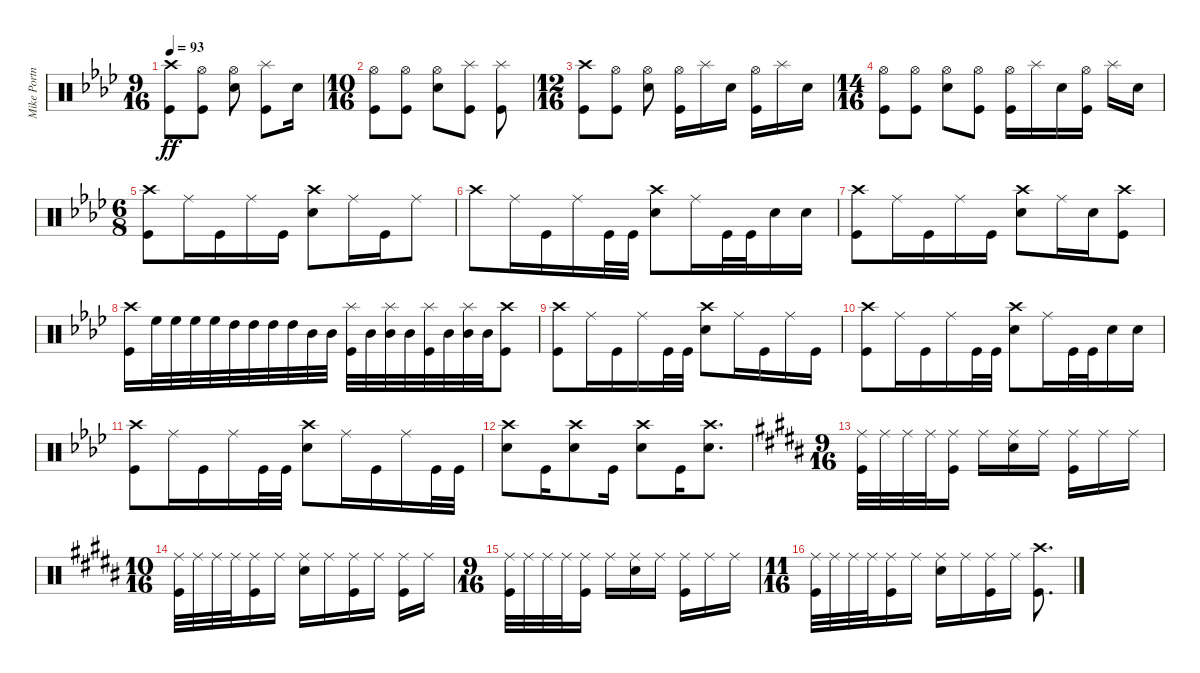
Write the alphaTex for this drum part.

\track ("Mike Portnoy - Drums" "Mike Portn") {instrument percussion}
\staff {score}
\articulation defaults
\ts (9 16)
\tempo 93
\clef neutral
\ks fminor
("Crash high (hit)" "Kick (hit)").8{dy ff} ("Hi-Hat (open)" "Kick (hit)").8 ("Hi-Hat (open)" "Snare (hit) 2").8 ("Splash (hit)" "Kick (hit)").8 "Snare (hit) 2".16 |
\ts (10 16)
("Hi-Hat (open)" "Kick (hit)").8 ("Hi-Hat (open)" "Kick (hit)").8 ("Hi-Hat (open)" "Snare (hit) 2").8 ("Splash (hit)" "Kick (hit)").8 ("Splash (hit)" "Kick (hit)").8 |
\ts (12 16)
("Crash high (hit)" "Kick (hit)").8 ("Hi-Hat (open)" "Kick (hit)").8 ("Hi-Hat (open)" "Snare (hit) 2").8 ("Hi-Hat (open)" "Kick (hit)").16 "Splash (hit)".16 "Snare (hit) 2".16 ("Hi-Hat (open)" "Kick (hit)").16 "Splash (hit)".16 "Snare (hit) 2".16 |
\ts (14 16)
("Hi-Hat (open)" "Kick (hit)").8 ("Hi-Hat (open)" "Kick (hit)").8 ("Hi-Hat (open)" "Snare (hit) 2").8 ("Hi-Hat (open)" "Kick (hit)").8 ("Hi-Hat (open)" "Kick (hit)").16 "Splash (hit)".16 "Snare (hit) 2".16 ("Hi-Hat (open)" "Kick (hit)").16 "Splash (hit)".16 "Snare (hit) 2".16 |
\ts (6 8)
("Crash high (hit)" "Kick (hit)").8 "Ride (middle)".16 "Kick (hit)".16 "Ride (middle)".16 "Kick (hit)".16 ("Crash high (hit)" "Snare (hit) 2").8 "Ride (middle)".16 "Kick (hit)".16 "Ride (middle)".8 |
"Crash high (hit)".8 "Ride (middle)".16 "Kick (hit)".16 "Ride (middle)".16 "Kick (hit)".32 "Kick (hit)".32 ("Crash high (hit)" "Snare (hit) 2").8 "Ride (middle)".16 "Kick (hit)".32 "Kick (hit)".32 "Snare (hit) 2".16 "Snare (hit) 2".16 |
("Crash high (hit)" "Kick (hit)").8 "Ride (middle)".16 "Kick (hit)".16 "Ride (middle)".16 "Kick (hit)".16 ("Crash high (hit)" "Snare (hit) 2").8 "Ride (middle)".16 "Snare (hit) 2".16 ("Crash high (hit)" "Kick (hit)").8 |
("Crash high (hit)" "Kick (hit)").16 "High Floor Tom (hit)".32 "High Floor Tom (hit)".32 "High Floor Tom (hit)".32 "High Floor Tom (hit)".32 "High Tom (hit)".32 "High Tom (hit)".32 "High Tom (hit)".32 "High Tom (hit)".32 "Mid Tom (hit)".32 "Mid Tom (hit)".32 ("Splash (hit)" "Kick (hit)").32 "Mid Tom (hit)".32 ("Splash (hit)" "Mid Tom (hit)").32 "Mid Tom (hit)".32 ("Splash (hit)" "Kick (hit)").32 "Mid Tom (hit)".32 ("Splash (hit)" "Mid Tom (hit)").32 "Mid Tom (hit)".32 ("Crash high (hit)" "Kick (hit)").8 |
("Crash high (hit)" "Kick (hit)").8 "Ride (middle)".16 "Kick (hit)".16 "Ride (middle)".16 "Kick (hit)".32 "Kick (hit)".32 ("Crash high (hit)" "Snare (hit) 2").8 "Ride (middle)".16 "Kick (hit)".16 "Ride (middle)".16 "Kick (hit)".16 |
("Crash high (hit)" "Kick (hit)").8 "Ride (middle)".16 "Kick (hit)".16 "Ride (middle)".16 "Kick (hit)".32 "Kick (hit)".32 ("Crash high (hit)" "Snare (hit) 2").8 "Ride (middle)".16 "Kick (hit)".32 "Kick (hit)".32 "Snare (hit) 2".16 "Snare (hit) 2".16 |
("Crash high (hit)" "Kick (hit)").8 "Ride (middle)".16 "Kick (hit)".16 "Ride (middle)".16 "Kick (hit)".32 "Kick (hit)".32 ("Crash high (hit)" "Snare (hit) 2").8 "Ride (middle)".16 "Kick (hit)".16 "Ride (middle)".16 "Kick (hit)".32 "Kick (hit)".32 |
("Crash high (hit)" "Snare (hit) 2").8 "Kick (hit)".16 ("Crash high (hit)" "Snare (hit) 2").8 "Kick (hit)".16 ("Crash high (hit)" "Snare (hit) 2").8 "Kick (hit)".16 ("Crash high (hit)" "Snare (hit) 2").8{d} |
\ts (9 16)
\ks g#minor
("Ride (middle)" "Kick (hit)").32 "Ride (middle)".32 "Ride (middle)".32 "Ride (middle)".32 ("Ride (middle)" "Kick (hit)").16 "Ride (middle)".16 ("Ride (middle)" "Snare (hit) 2").16 "Ride (middle)".16 ("Ride (middle)" "Kick (hit)").16 "Ride (middle)".16 "Ride (middle)".16 |
\ts (10 16)
("Ride (middle)" "Kick (hit)").32 "Ride (middle)".32 "Ride (middle)".32 "Ride (middle)".32 ("Ride (middle)" "Kick (hit)").16 "Ride (middle)".16 ("Ride (middle)" "Snare (hit) 2").16 "Ride (middle)".16 ("Ride (middle)" "Kick (hit)").16 "Ride (middle)".16 ("Ride (middle)" "Kick (hit)").16 "Ride (middle)".16 |
\ts (9 16)
("Ride (middle)" "Kick (hit)").32 "Ride (middle)".32 "Ride (middle)".32 "Ride (middle)".32 ("Ride (middle)" "Kick (hit)").16 "Ride (middle)".16 ("Ride (middle)" "Snare (hit) 2").16 "Ride (middle)".16 ("Ride (middle)" "Kick (hit)").16 "Ride (middle)".16 "Ride (middle)".16 |
\ts (11 16)
("Ride (middle)" "Kick (hit)").32 "Ride (middle)".32 "Ride (middle)".32 "Ride (middle)".32 ("Ride (middle)" "Kick (hit)").16 "Ride (middle)".16 ("Ride (middle)" "Snare (hit) 2").16 "Ride (middle)".16 ("Ride (middle)" "Kick (hit)").16 "Ride (middle)".16 ("Crash high (hit)" "Kick (hit)").8{d}
